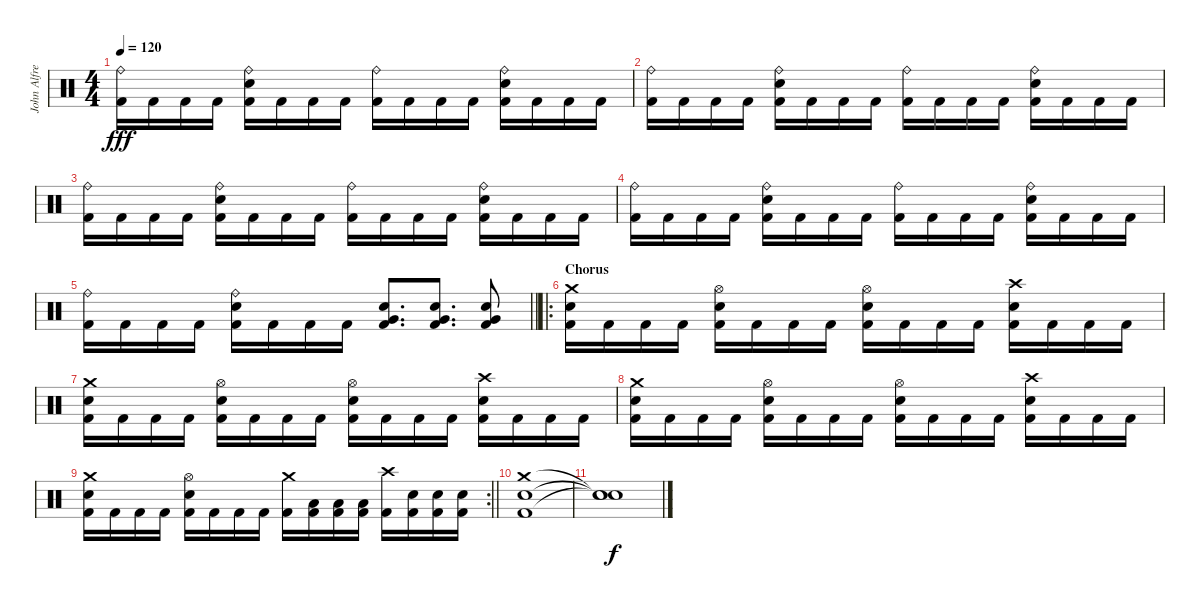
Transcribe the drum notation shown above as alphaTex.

\track ("John Alfredsson" "John Alfre") {instrument percussion}
\staff {score}
\articulation defaults
\ts (4 4)
\tempo 120
\clef neutral
\ks c
("Ride (bell)" "Kick (hit) 2").16{dy fff} "Kick (hit) 2".16 "Kick (hit) 2".16 "Kick (hit) 2".16 ("Ride (bell)" "Electric Snare (hit)" "Kick (hit) 2").16 "Kick (hit) 2".16 "Kick (hit) 2".16 "Kick (hit) 2".16 ("Ride (bell)" "Kick (hit) 2").16 "Kick (hit) 2".16 "Kick (hit) 2".16 "Kick (hit) 2".16 ("Ride (bell)" "Electric Snare (hit)" "Kick (hit) 2").16 "Kick (hit) 2".16 "Kick (hit) 2".16 "Kick (hit) 2".16 |
("Ride (bell)" "Kick (hit) 2").16 "Kick (hit) 2".16 "Kick (hit) 2".16 "Kick (hit) 2".16 ("Ride (bell)" "Electric Snare (hit)" "Kick (hit) 2").16 "Kick (hit) 2".16 "Kick (hit) 2".16 "Kick (hit) 2".16 ("Ride (bell)" "Kick (hit) 2").16 "Kick (hit) 2".16 "Kick (hit) 2".16 "Kick (hit) 2".16 ("Ride (bell)" "Electric Snare (hit)" "Kick (hit) 2").16 "Kick (hit) 2".16 "Kick (hit) 2".16 "Kick (hit) 2".16 |
("Ride (bell)" "Kick (hit) 2").16 "Kick (hit) 2".16 "Kick (hit) 2".16 "Kick (hit) 2".16 ("Ride (bell)" "Electric Snare (hit)" "Kick (hit) 2").16 "Kick (hit) 2".16 "Kick (hit) 2".16 "Kick (hit) 2".16 ("Ride (bell)" "Kick (hit) 2").16 "Kick (hit) 2".16 "Kick (hit) 2".16 "Kick (hit) 2".16 ("Ride (bell)" "Electric Snare (hit)" "Kick (hit) 2").16 "Kick (hit) 2".16 "Kick (hit) 2".16 "Kick (hit) 2".16 |
("Ride (bell)" "Kick (hit) 2").16 "Kick (hit) 2".16 "Kick (hit) 2".16 "Kick (hit) 2".16 ("Ride (bell)" "Electric Snare (hit)" "Kick (hit) 2").16 "Kick (hit) 2".16 "Kick (hit) 2".16 "Kick (hit) 2".16 ("Ride (bell)" "Kick (hit) 2").16 "Kick (hit) 2".16 "Kick (hit) 2".16 "Kick (hit) 2".16 ("Ride (bell)" "Electric Snare (hit)" "Kick (hit) 2").16 "Kick (hit) 2".16 "Kick (hit) 2".16 "Kick (hit) 2".16 |
\barLineRight lightlight
("Ride (bell)" "Kick (hit) 2").16 "Kick (hit) 2".16 "Kick (hit) 2".16 "Kick (hit) 2".16 ("Ride (bell)" "Electric Snare (hit)" "Kick (hit) 2").16 "Kick (hit) 2".16 "Kick (hit) 2".16 "Kick (hit) 2".16 ("Electric Snare (hit)" "Very Low Tom (hit)" "Kick (hit) 2").8{d} ("Electric Snare (hit)" "Very Low Tom (hit)" "Kick (hit) 2").8{d} ("Electric Snare (hit)" "Very Low Tom (hit)" "Kick (hit) 2").8 |
\ro
\section ("" "Chorus")
("Crash medium (hit)" "Electric Snare (hit)" "Kick (hit) 2").16 "Kick (hit) 2".16 "Kick (hit) 2".16 "Kick (hit) 2".16 ("Hi-Hat (open)" "Electric Snare (hit)" "Kick (hit) 2").16 "Kick (hit) 2".16 "Kick (hit) 2".16 "Kick (hit) 2".16 ("Hi-Hat (open)" "Electric Snare (hit)" "Kick (hit) 2").16 "Kick (hit) 2".16 "Kick (hit) 2".16 "Kick (hit) 2".16 ("Crash high (hit)" "Electric Snare (hit)" "Kick (hit) 2").16 "Kick (hit) 2".16 "Kick (hit) 2".16 "Kick (hit) 2".16 |
("Crash medium (hit)" "Electric Snare (hit)" "Kick (hit) 2").16 "Kick (hit) 2".16 "Kick (hit) 2".16 "Kick (hit) 2".16 ("Hi-Hat (open)" "Electric Snare (hit)" "Kick (hit) 2").16 "Kick (hit) 2".16 "Kick (hit) 2".16 "Kick (hit) 2".16 ("Hi-Hat (open)" "Electric Snare (hit)" "Kick (hit) 2").16 "Kick (hit) 2".16 "Kick (hit) 2".16 "Kick (hit) 2".16 ("Crash high (hit)" "Electric Snare (hit)" "Kick (hit) 2").16 "Kick (hit) 2".16 "Kick (hit) 2".16 "Kick (hit) 2".16 |
("Crash medium (hit)" "Electric Snare (hit)" "Kick (hit) 2").16 "Kick (hit) 2".16 "Kick (hit) 2".16 "Kick (hit) 2".16 ("Hi-Hat (open)" "Electric Snare (hit)" "Kick (hit) 2").16 "Kick (hit) 2".16 "Kick (hit) 2".16 "Kick (hit) 2".16 ("Hi-Hat (open)" "Electric Snare (hit)" "Kick (hit) 2").16 "Kick (hit) 2".16 "Kick (hit) 2".16 "Kick (hit) 2".16 ("Crash high (hit)" "Electric Snare (hit)" "Kick (hit) 2").16 "Kick (hit) 2".16 "Kick (hit) 2".16 "Kick (hit) 2".16 |
\rc 2
\barLineRight lightlight
("Crash medium (hit)" "Electric Snare (hit)" "Kick (hit) 2").16 "Kick (hit) 2".16 "Kick (hit) 2".16 "Kick (hit) 2".16 ("Hi-Hat (open)" "Electric Snare (hit)" "Kick (hit) 2").16 "Kick (hit) 2".16 "Kick (hit) 2".16 "Kick (hit) 2".16 ("Crash medium (hit)" "Kick (hit) 2").16 ("Low Tom (hit)" "Kick (hit) 2").16 ("Low Tom (hit)" "Kick (hit) 2").16 ("Low Tom (hit)" "Kick (hit) 2").16 ("Crash high (hit)" "Kick (hit) 2").16 ("Electric Snare (hit)" "Kick (hit) 2").16 ("Electric Snare (hit)" "Kick (hit) 2").16 ("Electric Snare (hit)" "Kick (hit) 2").16 |
("Crash medium (hit)" "Electric Snare (hit)" "Kick (hit) 2").1 |
("Snare (hit)"{t} "Snare (hit)"{t} "Snare (hit)"{t}).1{dy f}
